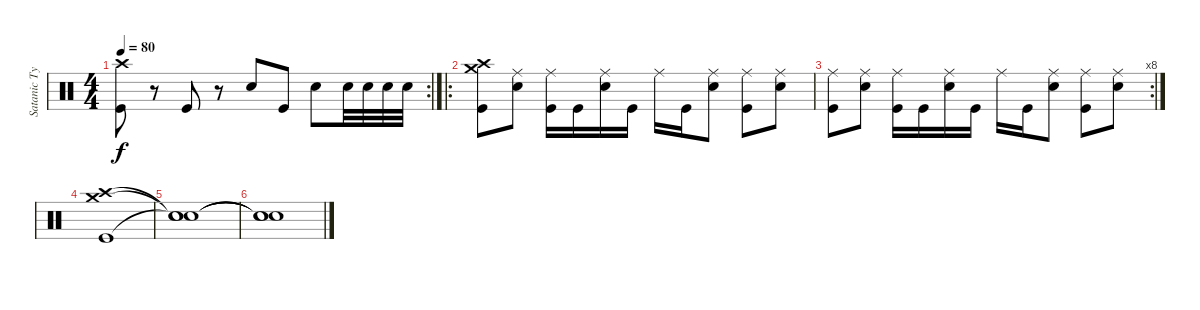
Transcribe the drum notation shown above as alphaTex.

\track ("Satanic Tyrant Werewolf" "Satanic Ty") {instrument percussion}
\staff {score}
\articulation defaults
\rc 2
\ts (4 4)
\tempo 80
\clef neutral
\ks c
("Crash high (hit)" "Kick (hit)").8{dy f} r.8 "Kick (hit)".8 r.8 "Snare (hit) 2".8 "Kick (hit)".8 "Snare (hit) 2".8 "Snare (hit) 2".32 "Snare (hit) 2".32 "Snare (hit) 2".32 "Snare (hit) 2".32 |
\ro
("Crash high (hit)" "Crash medium (hit)" "Kick (hit)").8 ("Ride (middle)" "Snare (hit) 2").8 ("Ride (middle)" "Kick (hit)").16 "Kick (hit)".16 ("Ride (middle)" "Snare (hit) 2").16 "Kick (hit)".16 "Ride (middle)".16 "Kick (hit)".16 ("Ride (middle)" "Snare (hit) 2").8 ("Ride (middle)" "Kick (hit)").8 ("Ride (middle)" "Snare (hit) 2").8 |
\rc 8
("Ride (middle)" "Kick (hit)").8 ("Ride (middle)" "Snare (hit) 2").8 ("Ride (middle)" "Kick (hit)").16 "Kick (hit)".16 ("Ride (middle)" "Snare (hit) 2").16 "Kick (hit)".16 "Ride (middle)".16 "Kick (hit)".16 ("Ride (middle)" "Snare (hit) 2").8 ("Ride (middle)" "Kick (hit)").8 ("Ride (middle)" "Snare (hit) 2").8 |
("Crash high (hit)" "Crash medium (hit)" "Kick (hit)").1 |
("Snare (hit)"{t} "Snare (hit)"{t} "Snare (hit)"{t}).1 |
("Snare (hit)"{t} "Snare (hit)"{t} "Snare (hit)"{t}).1
